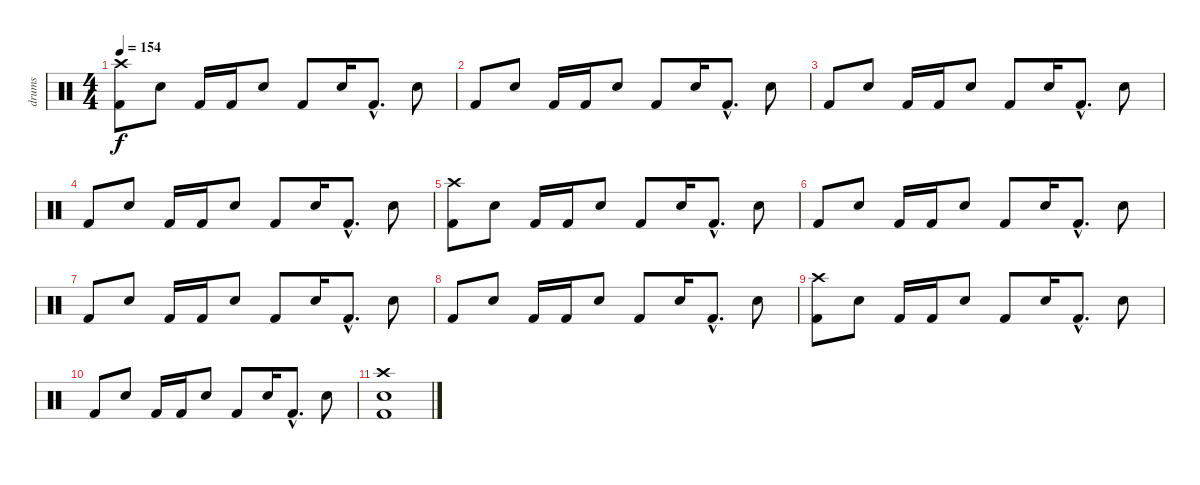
\track ("drums" "drums") {instrument percussion}
\staff {score}
\articulation defaults
\ts (4 4)
\tempo 154
\clef neutral
\ks c
("Crash high (hit)" "Kick (hit) 2").8{dy f} "Snare (hit) 2".8 "Kick (hit) 2".16 "Kick (hit) 2".16 "Snare (hit) 2".8 "Kick (hit) 2".8 "Snare (hit) 2".16 "Kick (hit) 2"{hac}.8{d} "Snare (hit) 2".8 |
"Kick (hit) 2".8 "Snare (hit) 2".8 "Kick (hit) 2".16 "Kick (hit) 2".16 "Snare (hit) 2".8 "Kick (hit) 2".8 "Snare (hit) 2".16 "Kick (hit) 2"{hac}.8{d} "Snare (hit) 2".8 |
"Kick (hit) 2".8 "Snare (hit) 2".8 "Kick (hit) 2".16 "Kick (hit) 2".16 "Snare (hit) 2".8 "Kick (hit) 2".8 "Snare (hit) 2".16 "Kick (hit) 2"{hac}.8{d} "Snare (hit) 2".8 |
"Kick (hit) 2".8 "Snare (hit) 2".8 "Kick (hit) 2".16 "Kick (hit) 2".16 "Snare (hit) 2".8 "Kick (hit) 2".8 "Snare (hit) 2".16 "Kick (hit) 2"{hac}.8{d} "Snare (hit) 2".8 |
("Crash high (hit)" "Kick (hit) 2").8 "Snare (hit) 2".8 "Kick (hit) 2".16 "Kick (hit) 2".16 "Snare (hit) 2".8 "Kick (hit) 2".8 "Snare (hit) 2".16 "Kick (hit) 2"{hac}.8{d} "Snare (hit) 2".8 |
"Kick (hit) 2".8 "Snare (hit) 2".8 "Kick (hit) 2".16 "Kick (hit) 2".16 "Snare (hit) 2".8 "Kick (hit) 2".8 "Snare (hit) 2".16 "Kick (hit) 2"{hac}.8{d} "Snare (hit) 2".8 |
"Kick (hit) 2".8 "Snare (hit) 2".8 "Kick (hit) 2".16 "Kick (hit) 2".16 "Snare (hit) 2".8 "Kick (hit) 2".8 "Snare (hit) 2".16 "Kick (hit) 2"{hac}.8{d} "Snare (hit) 2".8 |
"Kick (hit) 2".8 "Snare (hit) 2".8 "Kick (hit) 2".16 "Kick (hit) 2".16 "Snare (hit) 2".8 "Kick (hit) 2".8 "Snare (hit) 2".16 "Kick (hit) 2"{hac}.8{d} "Snare (hit) 2".8 |
("Crash high (hit)" "Kick (hit) 2").8 "Snare (hit) 2".8 "Kick (hit) 2".16 "Kick (hit) 2".16 "Snare (hit) 2".8 "Kick (hit) 2".8 "Snare (hit) 2".16 "Kick (hit) 2"{hac}.8{d} "Snare (hit) 2".8 |
"Kick (hit) 2".8 "Snare (hit) 2".8 "Kick (hit) 2".16 "Kick (hit) 2".16 "Snare (hit) 2".8 "Kick (hit) 2".8 "Snare (hit) 2".16 "Kick (hit) 2"{hac}.8{d} "Snare (hit) 2".8 |
("Snare (hit) 2" "Crash high (hit)" "Kick (hit) 2").1
